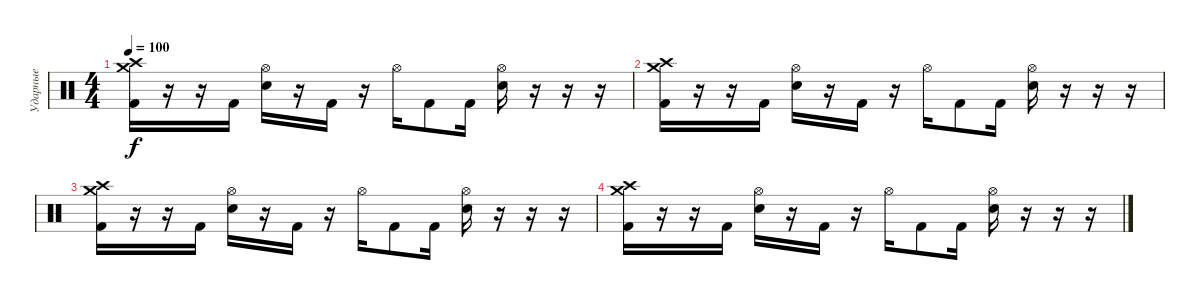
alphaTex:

\track ("Ударные" "Ударные") {instrument percussion}
\staff {score}
\articulation defaults
\ts (4 4)
\tempo 100
\clef neutral
\ks c
("Kick (hit) 2" "Crash high (hit)" "Crash medium (hit)").16{dy f} r.16 r.16 "Kick (hit) 2".16 ("Electric Snare (hit)" "Hi-Hat (open)").16 r.16 "Kick (hit) 2".16 r.16 "Hi-Hat (open)".16 "Kick (hit) 2".8 "Kick (hit) 2".16 ("Electric Snare (hit)" "Hi-Hat (open)").16 r.16 r.16 r.16 |
("Kick (hit) 2" "Crash high (hit)" "Crash medium (hit)").16 r.16 r.16 "Kick (hit) 2".16 ("Electric Snare (hit)" "Hi-Hat (open)").16 r.16 "Kick (hit) 2".16 r.16 "Hi-Hat (open)".16 "Kick (hit) 2".8 "Kick (hit) 2".16 ("Electric Snare (hit)" "Hi-Hat (open)").16 r.16 r.16 r.16 |
("Kick (hit) 2" "Crash high (hit)" "Crash medium (hit)").16 r.16 r.16 "Kick (hit) 2".16 ("Electric Snare (hit)" "Hi-Hat (open)").16 r.16 "Kick (hit) 2".16 r.16 "Hi-Hat (open)".16 "Kick (hit) 2".8 "Kick (hit) 2".16 ("Electric Snare (hit)" "Hi-Hat (open)").16 r.16 r.16 r.16 |
("Kick (hit) 2" "Crash high (hit)" "Crash medium (hit)").16 r.16 r.16 "Kick (hit) 2".16 ("Electric Snare (hit)" "Hi-Hat (open)").16 r.16 "Kick (hit) 2".16 r.16 "Hi-Hat (open)".16 "Kick (hit) 2".8 "Kick (hit) 2".16 ("Electric Snare (hit)" "Hi-Hat (open)").16 r.16 r.16 r.16
